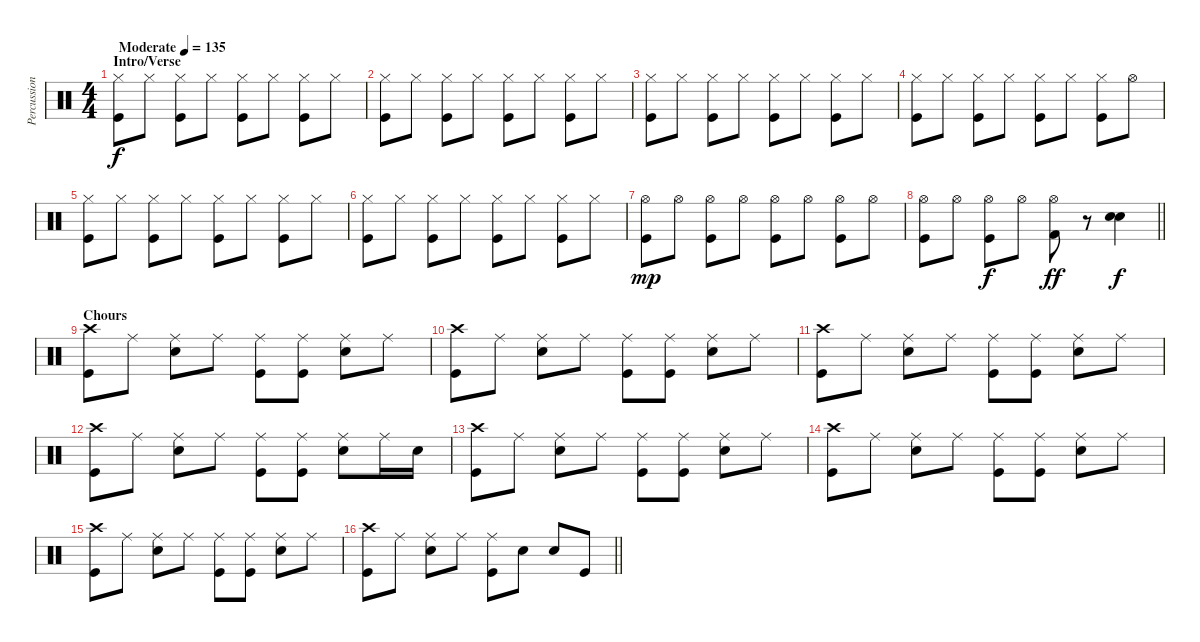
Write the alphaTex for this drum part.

\track ("Percussion" "Percussion") {instrument percussion}
\staff {score}
\articulation defaults
\ts (4 4)
\section ("" "Intro/Verse ")
\tempo (135 "Moderate")
\clef neutral
\ks c
("Hi-Hat (closed)" "Kick (hit)").8{dy f} "Hi-Hat (closed)".8 ("Hi-Hat (closed)" "Kick (hit)").8 "Hi-Hat (closed)".8 ("Hi-Hat (closed)" "Kick (hit)").8 "Hi-Hat (closed)".8 ("Hi-Hat (closed)" "Kick (hit)").8 "Hi-Hat (closed)".8 |
("Hi-Hat (closed)" "Kick (hit)").8 "Hi-Hat (closed)".8 ("Hi-Hat (closed)" "Kick (hit)").8 "Hi-Hat (closed)".8 ("Hi-Hat (closed)" "Kick (hit)").8 "Hi-Hat (closed)".8 ("Hi-Hat (closed)" "Kick (hit)").8 "Hi-Hat (closed)".8 |
("Hi-Hat (closed)" "Kick (hit)").8 "Hi-Hat (closed)".8 ("Hi-Hat (closed)" "Kick (hit)").8 "Hi-Hat (closed)".8 ("Hi-Hat (closed)" "Kick (hit)").8 "Hi-Hat (closed)".8 ("Hi-Hat (closed)" "Kick (hit)").8 "Hi-Hat (closed)".8 |
("Hi-Hat (closed)" "Kick (hit)").8 "Hi-Hat (closed)".8 ("Hi-Hat (closed)" "Kick (hit)").8 "Hi-Hat (closed)".8 ("Hi-Hat (closed)" "Kick (hit)").8 "Hi-Hat (closed)".8 ("Hi-Hat (closed)" "Kick (hit)").8 "Hi-Hat (open)".8 |
("Hi-Hat (closed)" "Kick (hit)").8 "Hi-Hat (closed)".8 ("Hi-Hat (closed)" "Kick (hit)").8 "Hi-Hat (closed)".8 ("Hi-Hat (closed)" "Kick (hit)").8 "Hi-Hat (closed)".8 ("Hi-Hat (closed)" "Kick (hit)").8 "Hi-Hat (closed)".8 |
("Hi-Hat (closed)" "Kick (hit)").8 "Hi-Hat (closed)".8 ("Hi-Hat (closed)" "Kick (hit)").8 "Hi-Hat (closed)".8 ("Hi-Hat (closed)" "Kick (hit)").8 "Hi-Hat (closed)".8 ("Hi-Hat (closed)" "Kick (hit)").8 "Hi-Hat (closed)".8 |
("Hi-Hat (open)" "Kick (hit)").8{dy mp} "Hi-Hat (open)".8 ("Hi-Hat (open)" "Kick (hit)").8 "Hi-Hat (open)".8 ("Hi-Hat (open)" "Kick (hit)").8 "Hi-Hat (open)".8 ("Hi-Hat (open)" "Kick (hit)").8 "Hi-Hat (open)".8 |
\barLineRight lightlight
("Hi-Hat (open)" "Kick (hit)").8 "Hi-Hat (open)".8 ("Hi-Hat (open)" "Kick (hit)").8{dy f} "Hi-Hat (open)".8 ("Hi-Hat (open)" "Kick (hit) 2").8{dy ff} r.8 ("Snare (hit) 2" "Snare (hit) 2").4{dy f} |
\section ("" "Chours ")
("Kick (hit)" "Crash high (hit)").8 "Ride (middle)".8 ("Ride (middle)" "Snare (hit) 2").8 "Ride (middle)".8 ("Ride (middle)" "Kick (hit)").8 ("Ride (middle)" "Kick (hit)").8 ("Ride (middle)" "Snare (hit) 2").8 "Ride (middle)".8 |
("Kick (hit)" "Crash high (hit)").8 "Ride (middle)".8 ("Ride (middle)" "Snare (hit) 2").8 "Ride (middle)".8 ("Ride (middle)" "Kick (hit)").8 ("Ride (middle)" "Kick (hit)").8 ("Ride (middle)" "Snare (hit) 2").8 "Ride (middle)".8 |
("Kick (hit)" "Crash high (hit)").8 "Ride (middle)".8 ("Ride (middle)" "Snare (hit) 2").8 "Ride (middle)".8 ("Ride (middle)" "Kick (hit)").8 ("Ride (middle)" "Kick (hit)").8 ("Ride (middle)" "Snare (hit) 2").8 "Ride (middle)".8 |
("Kick (hit)" "Crash high (hit)").8 "Ride (middle)".8 ("Ride (middle)" "Snare (hit) 2").8 "Ride (middle)".8 ("Ride (middle)" "Kick (hit)").8 ("Ride (middle)" "Kick (hit)").8 ("Ride (middle)" "Snare (hit) 2").8 "Ride (middle)".16 "Snare (hit) 2".16 |
("Kick (hit)" "Crash high (hit)").8 "Ride (middle)".8 ("Ride (middle)" "Snare (hit) 2").8 "Ride (middle)".8 ("Ride (middle)" "Kick (hit)").8 ("Ride (middle)" "Kick (hit)").8 ("Ride (middle)" "Snare (hit) 2").8 "Ride (middle)".8 |
("Kick (hit)" "Crash high (hit)").8 "Ride (middle)".8 ("Ride (middle)" "Snare (hit) 2").8 "Ride (middle)".8 ("Ride (middle)" "Kick (hit)").8 ("Ride (middle)" "Kick (hit)").8 ("Ride (middle)" "Snare (hit) 2").8 "Ride (middle)".8 |
("Kick (hit)" "Crash high (hit)").8 "Ride (middle)".8 ("Ride (middle)" "Snare (hit) 2").8 "Ride (middle)".8 ("Ride (middle)" "Kick (hit)").8 ("Ride (middle)" "Kick (hit)").8 ("Ride (middle)" "Snare (hit) 2").8 "Ride (middle)".8 |
\barLineRight lightlight
("Crash high (hit)" "Kick (hit)").8 "Ride (middle)".8 ("Ride (middle)" "Snare (hit) 2").8 "Ride (middle)".8 ("Ride (middle)" "Kick (hit)").8 "Snare (hit) 2".8 "Snare (hit) 2".8 "Kick (hit)".8
